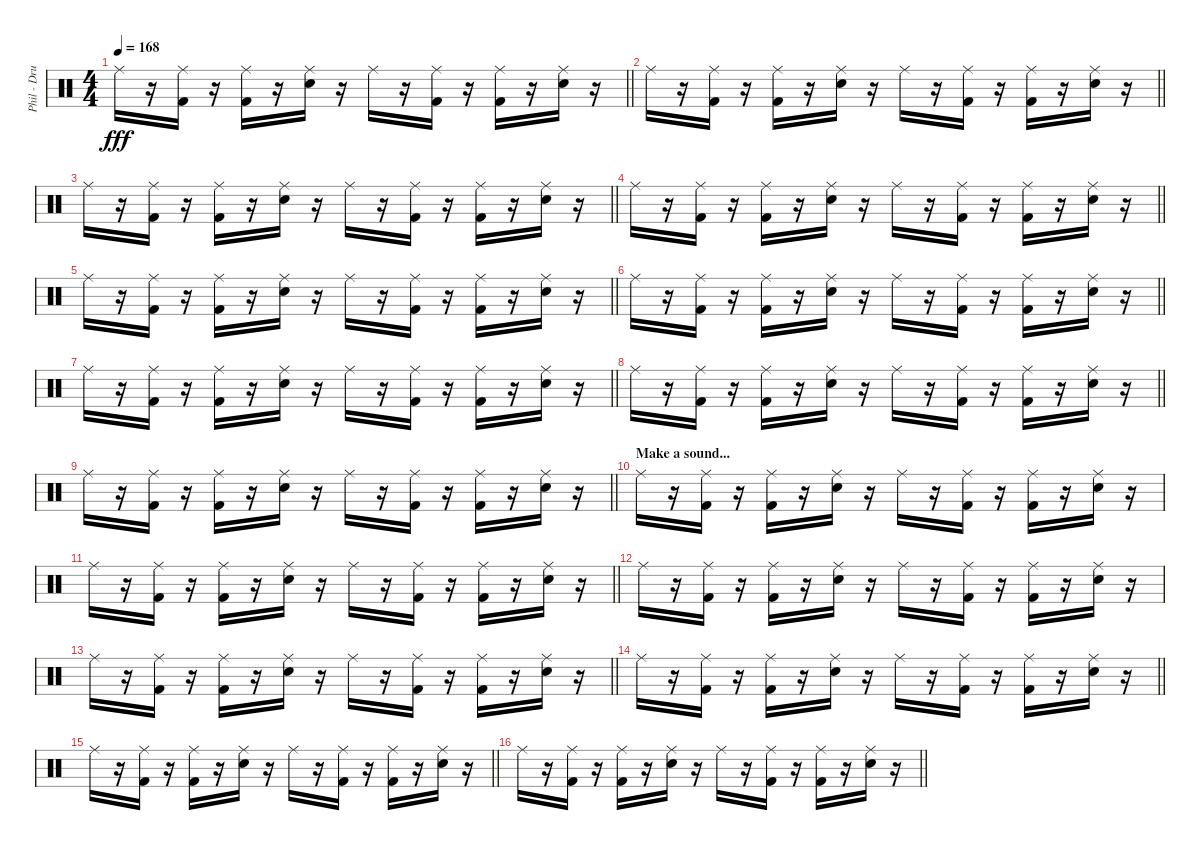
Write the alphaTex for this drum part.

\track ("Phil - Drums" "Phil - Dru") {instrument percussion}
\staff {score}
\articulation defaults
\ts (4 4)
\tempo 168
\clef neutral
\barLineRight lightlight
\ks c "Ride (middle)".16{dy fff}
r.16 ("Ride (middle)" "Kick (hit) 2").16 r.16 ("Ride (middle)" "Kick (hit) 2").16 r.16 ("Ride (middle)" "Electric Snare (hit)").16 r.16 "Ride (middle)".16 r.16 ("Ride (middle)" "Kick (hit) 2").16 r.16 ("Ride (middle)" "Kick (hit) 2").16 r.16 ("Ride (middle)" "Electric Snare (hit)").16 r.16 |
\barLineRight lightlight "Ride (middle)".16
r.16 ("Ride (middle)" "Kick (hit) 2").16 r.16 ("Ride (middle)" "Kick (hit) 2").16 r.16 ("Ride (middle)" "Electric Snare (hit)").16 r.16 "Ride (middle)".16 r.16 ("Ride (middle)" "Kick (hit) 2").16 r.16 ("Ride (middle)" "Kick (hit) 2").16 r.16 ("Ride (middle)" "Electric Snare (hit)").16 r.16 |
\barLineRight lightlight "Ride (middle)".16
r.16 ("Ride (middle)" "Kick (hit) 2").16 r.16 ("Ride (middle)" "Kick (hit) 2").16 r.16 ("Ride (middle)" "Electric Snare (hit)").16 r.16 "Ride (middle)".16 r.16 ("Ride (middle)" "Kick (hit) 2").16 r.16 ("Ride (middle)" "Kick (hit) 2").16 r.16 ("Ride (middle)" "Electric Snare (hit)").16 r.16 |
\barLineRight lightlight "Ride (middle)".16
r.16 ("Ride (middle)" "Kick (hit) 2").16 r.16 ("Ride (middle)" "Kick (hit) 2").16 r.16 ("Ride (middle)" "Electric Snare (hit)").16 r.16 "Ride (middle)".16 r.16 ("Ride (middle)" "Kick (hit) 2").16 r.16 ("Ride (middle)" "Kick (hit) 2").16 r.16 ("Ride (middle)" "Electric Snare (hit)").16 r.16 |
\barLineRight lightlight "Ride (middle)".16
r.16 ("Ride (middle)" "Kick (hit) 2").16 r.16 ("Ride (middle)" "Kick (hit) 2").16 r.16 ("Ride (middle)" "Electric Snare (hit)").16 r.16 "Ride (middle)".16 r.16 ("Ride (middle)" "Kick (hit) 2").16 r.16 ("Ride (middle)" "Kick (hit) 2").16 r.16 ("Ride (middle)" "Electric Snare (hit)").16 r.16 |
\barLineRight lightlight "Ride (middle)".16
r.16 ("Ride (middle)" "Kick (hit) 2").16 r.16 ("Ride (middle)" "Kick (hit) 2").16 r.16 ("Ride (middle)" "Electric Snare (hit)").16 r.16 "Ride (middle)".16 r.16 ("Ride (middle)" "Kick (hit) 2").16 r.16 ("Ride (middle)" "Kick (hit) 2").16 r.16 ("Ride (middle)" "Electric Snare (hit)").16 r.16 |
\barLineRight lightlight "Ride (middle)".16
r.16 ("Ride (middle)" "Kick (hit) 2").16 r.16 ("Ride (middle)" "Kick (hit) 2").16 r.16 ("Ride (middle)" "Electric Snare (hit)").16 r.16 "Ride (middle)".16 r.16 ("Ride (middle)" "Kick (hit) 2").16 r.16 ("Ride (middle)" "Kick (hit) 2").16 r.16 ("Ride (middle)" "Electric Snare (hit)").16 r.16 |
\barLineRight lightlight "Ride (middle)".16
r.16 ("Ride (middle)" "Kick (hit) 2").16 r.16 ("Ride (middle)" "Kick (hit) 2").16 r.16 ("Ride (middle)" "Electric Snare (hit)").16 r.16 "Ride (middle)".16 r.16 ("Ride (middle)" "Kick (hit) 2").16 r.16 ("Ride (middle)" "Kick (hit) 2").16 r.16 ("Ride (middle)" "Electric Snare (hit)").16 r.16 |
\barLineRight lightlight "Ride (middle)".16
r.16 ("Ride (middle)" "Kick (hit) 2").16 r.16 ("Ride (middle)" "Kick (hit) 2").16 r.16 ("Ride (middle)" "Electric Snare (hit)").16 r.16 "Ride (middle)".16 r.16 ("Ride (middle)" "Kick (hit) 2").16 r.16 ("Ride (middle)" "Kick (hit) 2").16 r.16 ("Ride (middle)" "Electric Snare (hit)").16 r.16 |
\section ("" "Make a sound...")
"Ride (middle)".16 r.16 ("Ride (middle)" "Kick (hit) 2").16 r.16 ("Ride (middle)" "Kick (hit) 2").16 r.16 ("Ride (middle)" "Electric Snare (hit)").16 r.16 "Ride (middle)".16 r.16 ("Ride (middle)" "Kick (hit) 2").16 r.16 ("Ride (middle)" "Kick (hit) 2").16 r.16 ("Ride (middle)" "Electric Snare (hit)").16 r.16 |
\barLineRight lightlight "Ride (middle)".16
r.16 ("Ride (middle)" "Kick (hit) 2").16 r.16 ("Ride (middle)" "Kick (hit) 2").16 r.16 ("Ride (middle)" "Electric Snare (hit)").16 r.16 "Ride (middle)".16 r.16 ("Ride (middle)" "Kick (hit) 2").16 r.16 ("Ride (middle)" "Kick (hit) 2").16 r.16 ("Ride (middle)" "Electric Snare (hit)").16 r.16 |
"Ride (middle)".16 r.16 ("Ride (middle)" "Kick (hit) 2").16 r.16 ("Ride (middle)" "Kick (hit) 2").16 r.16 ("Ride (middle)" "Electric Snare (hit)").16 r.16 "Ride (middle)".16 r.16 ("Ride (middle)" "Kick (hit) 2").16 r.16 ("Ride (middle)" "Kick (hit) 2").16 r.16 ("Ride (middle)" "Electric Snare (hit)").16 r.16 |
\barLineRight lightlight "Ride (middle)".16
r.16 ("Ride (middle)" "Kick (hit) 2").16 r.16 ("Ride (middle)" "Kick (hit) 2").16 r.16 ("Ride (middle)" "Electric Snare (hit)").16 r.16 "Ride (middle)".16 r.16 ("Ride (middle)" "Kick (hit) 2").16 r.16 ("Ride (middle)" "Kick (hit) 2").16 r.16 ("Ride (middle)" "Electric Snare (hit)").16 r.16 |
\barLineRight lightlight "Ride (middle)".16
r.16 ("Ride (middle)" "Kick (hit) 2").16 r.16 ("Ride (middle)" "Kick (hit) 2").16 r.16 ("Ride (middle)" "Electric Snare (hit)").16 r.16 "Ride (middle)".16 r.16 ("Ride (middle)" "Kick (hit) 2").16 r.16 ("Ride (middle)" "Kick (hit) 2").16 r.16 ("Ride (middle)" "Electric Snare (hit)").16 r.16 |
\barLineRight lightlight "Ride (middle)".16
r.16 ("Ride (middle)" "Kick (hit) 2").16 r.16 ("Ride (middle)" "Kick (hit) 2").16 r.16 ("Ride (middle)" "Electric Snare (hit)").16 r.16 "Ride (middle)".16 r.16 ("Ride (middle)" "Kick (hit) 2").16 r.16 ("Ride (middle)" "Kick (hit) 2").16 r.16 ("Ride (middle)" "Electric Snare (hit)").16 r.16 |
\barLineRight lightlight "Ride (middle)".16
r.16 ("Ride (middle)" "Kick (hit) 2").16 r.16 ("Ride (middle)" "Kick (hit) 2").16 r.16 ("Ride (middle)" "Electric Snare (hit)").16 r.16 "Ride (middle)".16 r.16 ("Ride (middle)" "Kick (hit) 2").16 r.16 ("Ride (middle)" "Kick (hit) 2").16 r.16 ("Ride (middle)" "Electric Snare (hit)").16 r.16
